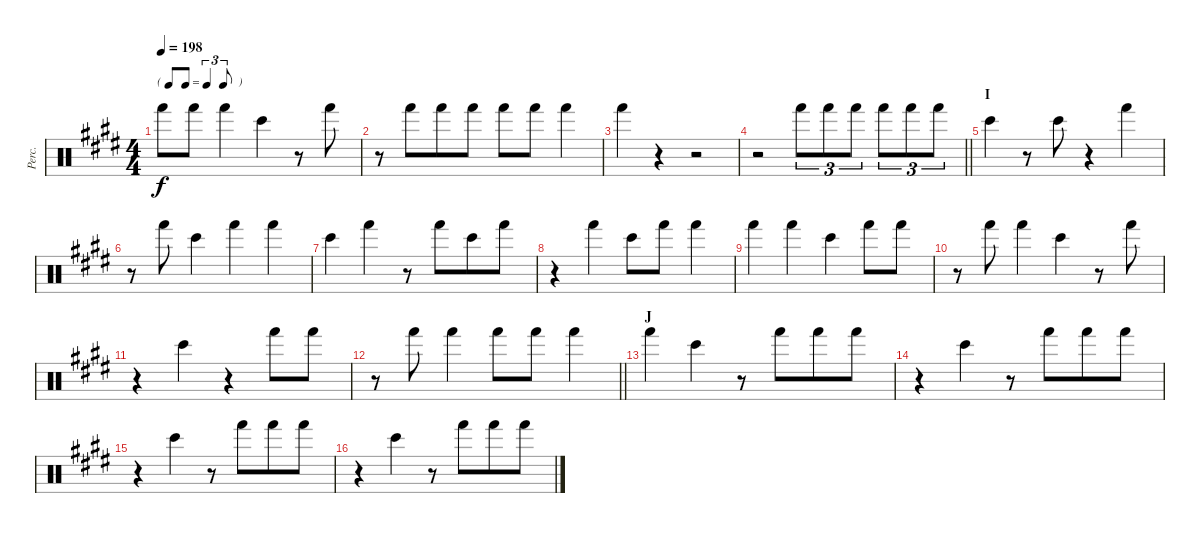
\track ("Perc." "Perc.") {instrument percussion}
\staff {score}
\articulation defaults
\ts (4 4)
\tf triplet8th
\tempo 198
\clef neutral
\ks e "Hand (hit)".8{dy f} "Hand (hit)".8 "Hand (hit)".4 "Bongo High (hit)".4
r.8 "Hand (hit)".8 |
r.8 "Hand (hit)".8{beam merge} "Hand (hit)".8 "Hand (hit)".8 "Hand (hit)".8 "Hand (hit)".8 "Hand (hit)".4 |
"Hand (hit)".4 r.4 r.2 |
\barLineRight lightlight
r.2 "Hand (hit)".8{tu (3 2)} "Hand (hit)".8{tu (3 2)} "Hand (hit)".8{tu (3 2)} "Hand (hit)".8{tu (3 2)} "Hand (hit)".8{tu (3 2)} "Hand (hit)".8{tu (3 2)} |
\section ("" "I")
"Bongo High (hit)".4 r.8 "Bongo High (hit)".8 r.4 "Hand (hit)".4 |
r.8 "Hand (hit)".8 "Bongo High (hit)".4 "Hand (hit)".4 "Hand (hit)".4 |
"Bongo High (hit)".4 "Hand (hit)".4 r.8 "Hand (hit)".8{beam merge} "Bongo High (hit)".8 "Hand (hit)".8 |
r.4 "Hand (hit)".4 "Bongo High (hit)".8 "Hand (hit)".8 "Hand (hit)".4 |
"Hand (hit)".4 "Hand (hit)".4 "Bongo High (hit)".4 "Hand (hit)".8 "Hand (hit)".8 |
r.8 "Hand (hit)".8 "Hand (hit)".4 "Bongo High (hit)".4 r.8 "Hand (hit)".8 |
r.4 "Bongo High (hit)".4 r.4 "Hand (hit)".8 "Hand (hit)".8 |
\barLineRight lightlight
r.8 "Hand (hit)".8 "Hand (hit)".4 "Hand (hit)".8 "Hand (hit)".8 "Hand (hit)".4 |
\section ("" "J")
"Hand (hit)".4 "Bongo High (hit)".4 r.8 "Hand (hit)".8{beam merge} "Hand (hit)".8 "Hand (hit)".8 |
r.4 "Bongo High (hit)".4 r.8 "Hand (hit)".8{beam merge} "Hand (hit)".8 "Hand (hit)".8 |
r.4 "Bongo High (hit)".4 r.8 "Hand (hit)".8{beam merge} "Hand (hit)".8 "Hand (hit)".8 |
r.4 "Bongo High (hit)".4 r.8 "Hand (hit)".8{beam merge} "Hand (hit)".8 "Hand (hit)".8
